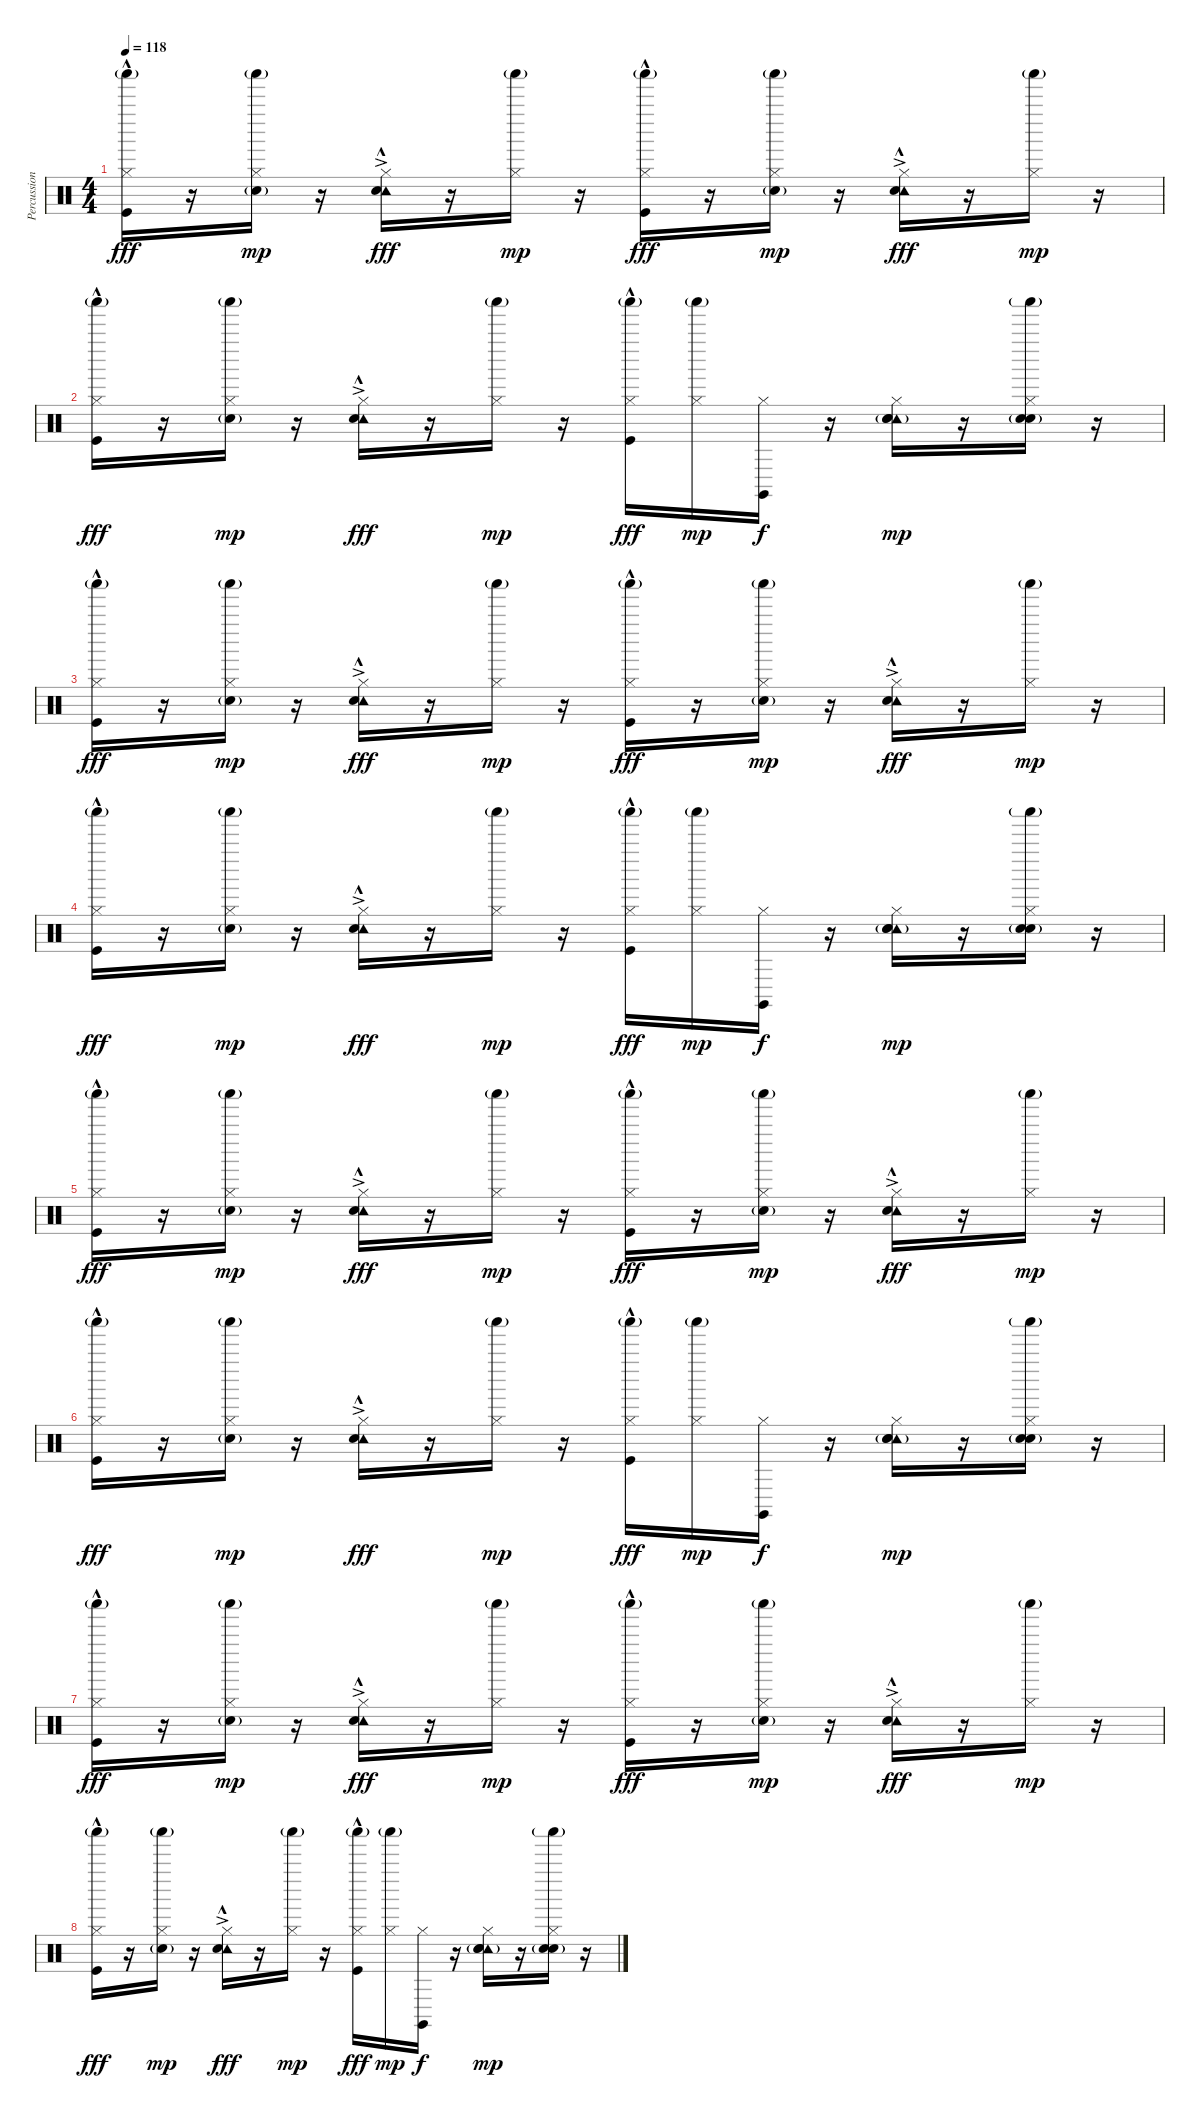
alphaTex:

\track ("Percussion" "Percussion") {instrument percussion}
\staff {score}
\articulation defaults
\ts (4 4)
\tempo 118
\clef neutral
\ks c
("Shaker (hit)"{g} "Hi-Hat (closed)" "Kick (hit)"{hac}).16{dy fff} r.16 ("Shaker (hit)"{g} "Hi-Hat (closed)" "Hand Clap (hit)"{g}).16{dy mp} r.16 ("Tambourine (hit)"{ac} "Hi-Hat (closed)" "Snare (hit) 2"{hac}).16{dy fff} r.16 ("Shaker (hit)"{g} "Hi-Hat (closed)").16{dy mp} r.16 ("Shaker (hit)"{g} "Hi-Hat (closed)" "Kick (hit)"{hac}).16{dy fff} r.16 ("Shaker (hit)"{g} "Hi-Hat (closed)" "Hand Clap (hit)"{g}).16{dy mp} r.16 ("Tambourine (hit)"{ac} "Hi-Hat (closed)" "Snare (hit) 2"{hac}).16{dy fff} r.16 ("Shaker (hit)"{g} "Hi-Hat (closed)").16{dy mp} r.16 |
("Shaker (hit)"{g} "Hi-Hat (closed)" "Kick (hit)"{hac}).16{dy fff} r.16 ("Shaker (hit)"{g} "Hi-Hat (closed)" "Hand Clap (hit)"{g}).16{dy mp} r.16 ("Tambourine (hit)"{ac} "Hi-Hat (closed)" "Snare (hit) 2"{hac}).16{dy fff} r.16 ("Shaker (hit)"{g} "Hi-Hat (closed)").16{dy mp} r.16 ("Shaker (hit)"{g} "Hi-Hat (closed)" "Kick (hit)"{hac}).16{dy fff} ("Shaker (hit)"{g} "Hi-Hat (closed)").16{dy mp} ("Claves (hit)" "Hi-Hat (closed)").16{dy f} r.16 ("Tambourine (hit)" "Hi-Hat (closed)" "Hand Clap (hit)" "Snare (hit) 2"{g}).16{dy mp} r.16 ("Shaker (hit)"{g} "Hi-Hat (closed)" "Hand Clap (hit)" "Snare (hit) 2"{g}).16 r.16 |
("Shaker (hit)"{g} "Hi-Hat (closed)" "Kick (hit)"{hac}).16{dy fff} r.16 ("Shaker (hit)"{g} "Hi-Hat (closed)" "Hand Clap (hit)"{g}).16{dy mp} r.16 ("Tambourine (hit)"{ac} "Hi-Hat (closed)" "Snare (hit) 2"{hac}).16{dy fff} r.16 ("Shaker (hit)"{g} "Hi-Hat (closed)").16{dy mp} r.16 ("Shaker (hit)"{g} "Hi-Hat (closed)" "Kick (hit)"{hac}).16{dy fff} r.16 ("Shaker (hit)"{g} "Hi-Hat (closed)" "Hand Clap (hit)"{g}).16{dy mp} r.16 ("Tambourine (hit)"{ac} "Hi-Hat (closed)" "Snare (hit) 2"{hac}).16{dy fff} r.16 ("Shaker (hit)"{g} "Hi-Hat (closed)").16{dy mp} r.16 |
("Shaker (hit)"{g} "Hi-Hat (closed)" "Kick (hit)"{hac}).16{dy fff} r.16 ("Shaker (hit)"{g} "Hi-Hat (closed)" "Hand Clap (hit)"{g}).16{dy mp} r.16 ("Tambourine (hit)"{ac} "Hi-Hat (closed)" "Snare (hit) 2"{hac}).16{dy fff} r.16 ("Shaker (hit)"{g} "Hi-Hat (closed)").16{dy mp} r.16 ("Shaker (hit)"{g} "Hi-Hat (closed)" "Kick (hit)"{hac}).16{dy fff} ("Shaker (hit)"{g} "Hi-Hat (closed)").16{dy mp} ("Claves (hit)" "Hi-Hat (closed)").16{dy f} r.16 ("Tambourine (hit)" "Hi-Hat (closed)" "Hand Clap (hit)" "Snare (hit) 2"{g}).16{dy mp} r.16 ("Shaker (hit)"{g} "Hi-Hat (closed)" "Hand Clap (hit)" "Snare (hit) 2"{g}).16 r.16 |
("Shaker (hit)"{g} "Hi-Hat (closed)" "Kick (hit)"{hac}).16{dy fff} r.16 ("Shaker (hit)"{g} "Hi-Hat (closed)" "Hand Clap (hit)"{g}).16{dy mp} r.16 ("Tambourine (hit)"{ac} "Hi-Hat (closed)" "Snare (hit) 2"{hac}).16{dy fff} r.16 ("Shaker (hit)"{g} "Hi-Hat (closed)").16{dy mp} r.16 ("Shaker (hit)"{g} "Hi-Hat (closed)" "Kick (hit)"{hac}).16{dy fff} r.16 ("Shaker (hit)"{g} "Hi-Hat (closed)" "Hand Clap (hit)"{g}).16{dy mp} r.16 ("Tambourine (hit)"{ac} "Hi-Hat (closed)" "Snare (hit) 2"{hac}).16{dy fff} r.16 ("Shaker (hit)"{g} "Hi-Hat (closed)").16{dy mp} r.16 |
("Shaker (hit)"{g} "Hi-Hat (closed)" "Kick (hit)"{hac}).16{dy fff} r.16 ("Shaker (hit)"{g} "Hi-Hat (closed)" "Hand Clap (hit)"{g}).16{dy mp} r.16 ("Tambourine (hit)"{ac} "Hi-Hat (closed)" "Snare (hit) 2"{hac}).16{dy fff} r.16 ("Shaker (hit)"{g} "Hi-Hat (closed)").16{dy mp} r.16 ("Shaker (hit)"{g} "Hi-Hat (closed)" "Kick (hit)"{hac}).16{dy fff} ("Shaker (hit)"{g} "Hi-Hat (closed)").16{dy mp} ("Claves (hit)" "Hi-Hat (closed)").16{dy f} r.16 ("Tambourine (hit)" "Hi-Hat (closed)" "Hand Clap (hit)" "Snare (hit) 2"{g}).16{dy mp} r.16 ("Shaker (hit)"{g} "Hi-Hat (closed)" "Hand Clap (hit)" "Snare (hit) 2"{g}).16 r.16 |
("Shaker (hit)"{g} "Hi-Hat (closed)" "Kick (hit)"{hac}).16{dy fff} r.16 ("Shaker (hit)"{g} "Hi-Hat (closed)" "Hand Clap (hit)"{g}).16{dy mp} r.16 ("Tambourine (hit)"{ac} "Hi-Hat (closed)" "Snare (hit) 2"{hac}).16{dy fff} r.16 ("Shaker (hit)"{g} "Hi-Hat (closed)").16{dy mp} r.16 ("Shaker (hit)"{g} "Hi-Hat (closed)" "Kick (hit)"{hac}).16{dy fff} r.16 ("Shaker (hit)"{g} "Hi-Hat (closed)" "Hand Clap (hit)"{g}).16{dy mp} r.16 ("Tambourine (hit)"{ac} "Hi-Hat (closed)" "Snare (hit) 2"{hac}).16{dy fff} r.16 ("Shaker (hit)"{g} "Hi-Hat (closed)").16{dy mp} r.16 |
("Shaker (hit)"{g} "Hi-Hat (closed)" "Kick (hit)"{hac}).16{dy fff} r.16 ("Shaker (hit)"{g} "Hi-Hat (closed)" "Hand Clap (hit)"{g}).16{dy mp} r.16 ("Tambourine (hit)"{ac} "Hi-Hat (closed)" "Snare (hit) 2"{hac}).16{dy fff} r.16 ("Shaker (hit)"{g} "Hi-Hat (closed)").16{dy mp} r.16 ("Shaker (hit)"{g} "Hi-Hat (closed)" "Kick (hit)"{hac}).16{dy fff} ("Shaker (hit)"{g} "Hi-Hat (closed)").16{dy mp} ("Claves (hit)" "Hi-Hat (closed)").16{dy f} r.16 ("Tambourine (hit)" "Hi-Hat (closed)" "Hand Clap (hit)" "Snare (hit) 2"{g}).16{dy mp} r.16 ("Shaker (hit)"{g} "Hi-Hat (closed)" "Hand Clap (hit)" "Snare (hit) 2"{g}).16 r.16
